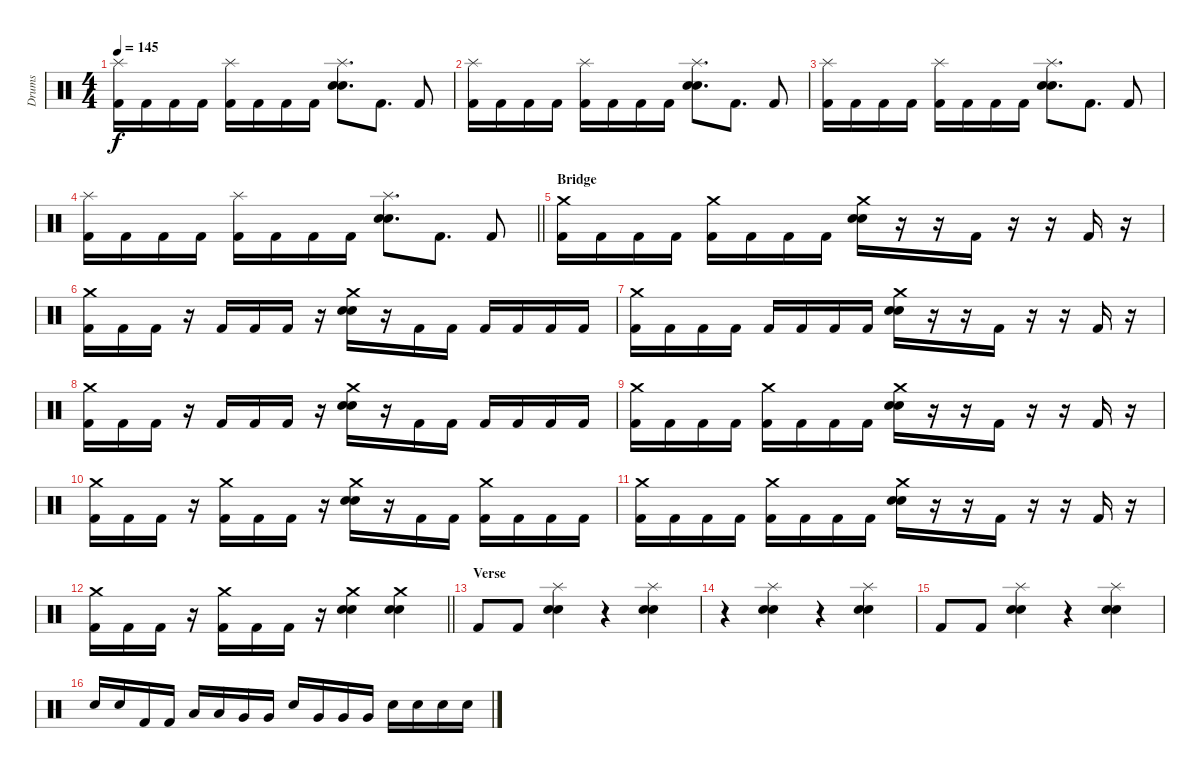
\track ("Drums" "Drums") {instrument percussion}
\staff {score}
\articulation defaults
\ts (4 4)
\tempo 145
\clef neutral
\ks c
("Splash (hit)" "Kick (hit) 2").16{dy f} "Kick (hit) 2".16 "Kick (hit) 2".16 "Kick (hit) 2".16 ("Splash (hit)" "Kick (hit) 2").16 "Kick (hit) 2".16 "Kick (hit) 2".16 "Kick (hit) 2".16 ("Splash (hit)" "Electric Snare (hit)" "Snare (hit) 2").8{d} "Kick (hit) 2".8{d} "Kick (hit) 2".8 |
("Splash (hit)" "Kick (hit) 2").16 "Kick (hit) 2".16 "Kick (hit) 2".16 "Kick (hit) 2".16 ("Splash (hit)" "Kick (hit) 2").16 "Kick (hit) 2".16 "Kick (hit) 2".16 "Kick (hit) 2".16 ("Splash (hit)" "Electric Snare (hit)" "Snare (hit) 2").8{d} "Kick (hit) 2".8{d} "Kick (hit) 2".8 |
("Splash (hit)" "Kick (hit) 2").16 "Kick (hit) 2".16 "Kick (hit) 2".16 "Kick (hit) 2".16 ("Splash (hit)" "Kick (hit) 2").16 "Kick (hit) 2".16 "Kick (hit) 2".16 "Kick (hit) 2".16 ("Splash (hit)" "Electric Snare (hit)" "Snare (hit) 2").8{d} "Kick (hit) 2".8{d} "Kick (hit) 2".8 |
\barLineRight lightlight
("Splash (hit)" "Kick (hit) 2").16 "Kick (hit) 2".16 "Kick (hit) 2".16 "Kick (hit) 2".16 ("Splash (hit)" "Kick (hit) 2").16 "Kick (hit) 2".16 "Kick (hit) 2".16 "Kick (hit) 2".16 ("Splash (hit)" "Electric Snare (hit)" "Snare (hit) 2").8{d} "Kick (hit) 2".8{d} "Kick (hit) 2".8 |
\section ("" "Bridge")
("Crash medium (hit)" "Kick (hit) 2").16 "Kick (hit) 2".16 "Kick (hit) 2".16 "Kick (hit) 2".16 ("Crash medium (hit)" "Kick (hit) 2").16 "Kick (hit) 2".16 "Kick (hit) 2".16 "Kick (hit) 2".16 ("Crash medium (hit)" "Electric Snare (hit)" "Snare (hit) 2").16 r.16 r.16 "Kick (hit) 2".16 r.16 r.16 "Kick (hit) 2".16 r.16 |
("Crash medium (hit)" "Kick (hit) 2").16 "Kick (hit) 2".16 "Kick (hit) 2".16 r.16 "Kick (hit) 2".16 "Kick (hit) 2".16 "Kick (hit) 2".16 r.16 ("Crash medium (hit)" "Electric Snare (hit)" "Snare (hit) 2").16 r.16 "Kick (hit) 2".16 "Kick (hit) 2".16 "Kick (hit) 2".16 "Kick (hit) 2".16 "Kick (hit) 2".16 "Kick (hit) 2".16 |
("Crash medium (hit)" "Kick (hit) 2").16 "Kick (hit) 2".16 "Kick (hit) 2".16 "Kick (hit) 2".16 "Kick (hit) 2".16 "Kick (hit) 2".16 "Kick (hit) 2".16 "Kick (hit) 2".16 ("Crash medium (hit)" "Electric Snare (hit)" "Snare (hit) 2").16 r.16 r.16 "Kick (hit) 2".16 r.16 r.16 "Kick (hit) 2".16 r.16 |
("Crash medium (hit)" "Kick (hit) 2").16 "Kick (hit) 2".16 "Kick (hit) 2".16 r.16 "Kick (hit) 2".16 "Kick (hit) 2".16 "Kick (hit) 2".16 r.16 ("Crash medium (hit)" "Electric Snare (hit)" "Snare (hit) 2").16 r.16 "Kick (hit) 2".16 "Kick (hit) 2".16 "Kick (hit) 2".16 "Kick (hit) 2".16 "Kick (hit) 2".16 "Kick (hit) 2".16 |
("Crash medium (hit)" "Kick (hit) 2").16 "Kick (hit) 2".16 "Kick (hit) 2".16 "Kick (hit) 2".16 ("Crash medium (hit)" "Kick (hit) 2").16 "Kick (hit) 2".16 "Kick (hit) 2".16 "Kick (hit) 2".16 ("Crash medium (hit)" "Electric Snare (hit)" "Snare (hit) 2").16 r.16 r.16 "Kick (hit) 2".16 r.16 r.16 "Kick (hit) 2".16 r.16 |
("Crash medium (hit)" "Kick (hit) 2").16 "Kick (hit) 2".16 "Kick (hit) 2".16 r.16 ("Crash medium (hit)" "Kick (hit) 2").16 "Kick (hit) 2".16 "Kick (hit) 2".16 r.16 ("Crash medium (hit)" "Electric Snare (hit)" "Snare (hit) 2").16 r.16 "Kick (hit) 2".16 "Kick (hit) 2".16 ("Crash medium (hit)" "Kick (hit) 2").16 "Kick (hit) 2".16 "Kick (hit) 2".16 "Kick (hit) 2".16 |
("Crash medium (hit)" "Kick (hit) 2").16 "Kick (hit) 2".16 "Kick (hit) 2".16 "Kick (hit) 2".16 ("Crash medium (hit)" "Kick (hit) 2").16 "Kick (hit) 2".16 "Kick (hit) 2".16 "Kick (hit) 2".16 ("Crash medium (hit)" "Electric Snare (hit)" "Snare (hit) 2").16 r.16 r.16 "Kick (hit) 2".16 r.16 r.16 "Kick (hit) 2".16 r.16 |
\barLineRight lightlight
("Crash medium (hit)" "Kick (hit) 2").16 "Kick (hit) 2".16 "Kick (hit) 2".16 r.16 ("Crash medium (hit)" "Kick (hit) 2").16 "Kick (hit) 2".16 "Kick (hit) 2".16 r.16 ("Crash medium (hit)" "Electric Snare (hit)" "Snare (hit) 2").4 ("Crash medium (hit)" "Electric Snare (hit)" "Snare (hit) 2").4 |
\section ("" "Verse")
"Kick (hit) 2".8 "Kick (hit) 2".8 ("Splash (hit)" "Electric Snare (hit)" "Snare (hit) 2").4 r.4 ("Splash (hit)" "Electric Snare (hit)" "Snare (hit) 2").4 |
r.4 ("Splash (hit)" "Electric Snare (hit)" "Snare (hit) 2").4 r.4 ("Splash (hit)" "Electric Snare (hit)" "Snare (hit) 2").4 |
"Kick (hit) 2".8 "Kick (hit) 2".8 ("Splash (hit)" "Electric Snare (hit)" "Snare (hit) 2").4 r.4 ("Splash (hit)" "Electric Snare (hit)" "Snare (hit) 2").4 |
"Electric Snare (hit)".16 "Electric Snare (hit)".16 "Kick (hit) 2".16 "Kick (hit) 2".16 "Low Tom (hit)".16 "Low Tom (hit)".16 "Very Low Tom (hit)".16 "Very Low Tom (hit)".16 "Electric Snare (hit)".16 "Very Low Tom (hit)".16 "Very Low Tom (hit)".16 "Very Low Tom (hit)".16 "Electric Snare (hit)".16 "Electric Snare (hit)".16 "Electric Snare (hit)".16 "Electric Snare (hit)".16
